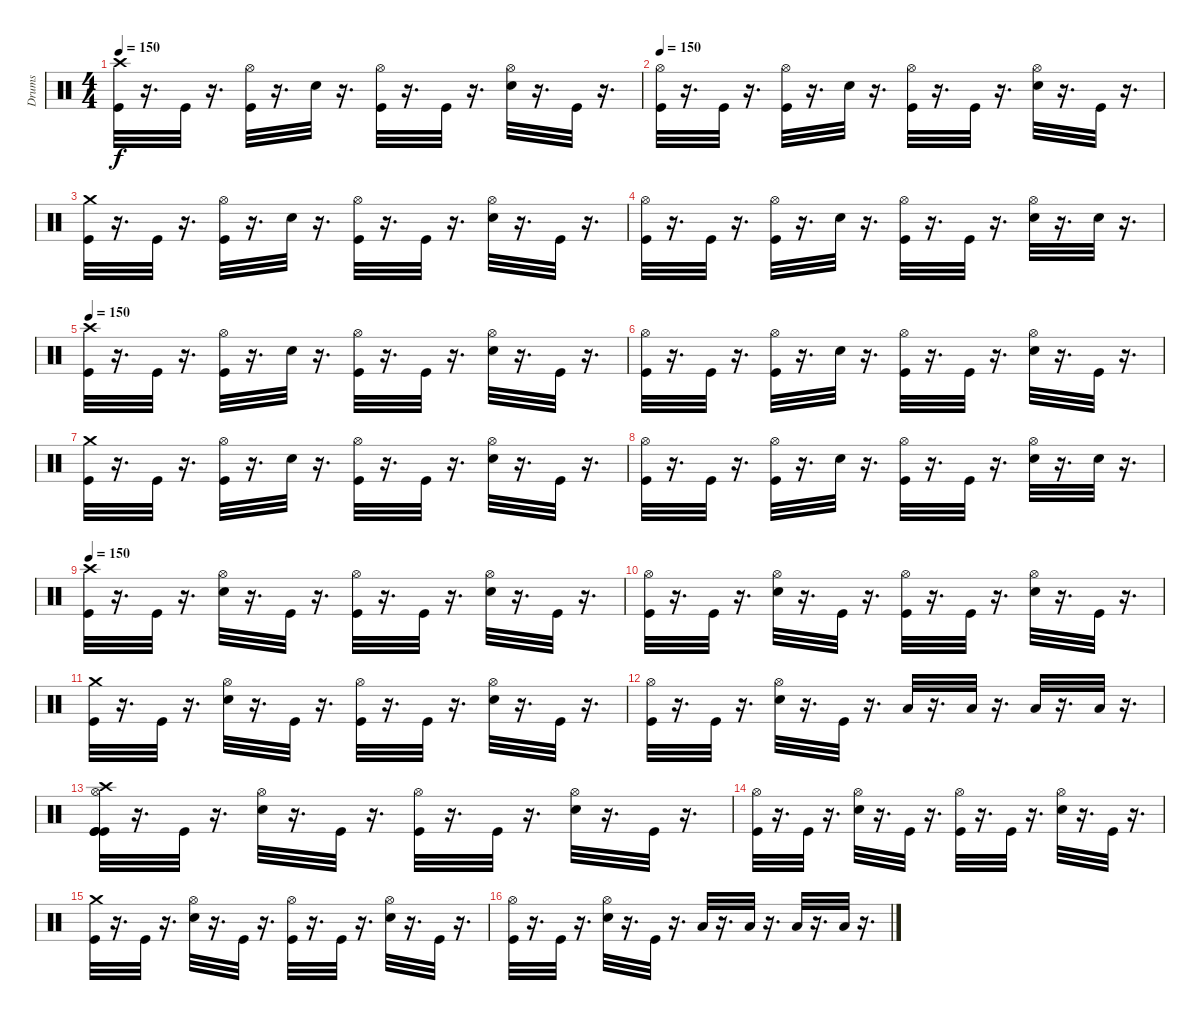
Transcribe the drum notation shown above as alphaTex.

\track ("Drums" "Drums") {instrument percussion}
\staff {score}
\articulation defaults
\ts (4 4)
\tempo 150
\clef neutral
\ks c
("Crash high (hit)" "Kick (hit)").32{dy f} r.16{d} "Kick (hit)".32 r.16{d} ("Hi-Hat (open)" "Kick (hit)").32 r.16{d} "Electric Snare (hit)".32 r.16{d} ("Hi-Hat (open)" "Kick (hit)").32 r.16{d} "Kick (hit)".32 r.16{d} ("Hi-Hat (open)" "Electric Snare (hit)").32 r.16{d} "Kick (hit)".32 r.16{d} |
\tempo 150
("Hi-Hat (open)" "Kick (hit)").32 r.16{d} "Kick (hit)".32 r.16{d} ("Hi-Hat (open)" "Kick (hit)").32 r.16{d} "Electric Snare (hit)".32 r.16{d} ("Hi-Hat (open)" "Kick (hit)").32 r.16{d} "Kick (hit)".32 r.16{d} ("Hi-Hat (open)" "Electric Snare (hit)").32 r.16{d} "Kick (hit)".32 r.16{d} |
("Crash medium (hit)" "Kick (hit)").32 r.16{d} "Kick (hit)".32 r.16{d} ("Hi-Hat (open)" "Kick (hit)").32 r.16{d} "Electric Snare (hit)".32 r.16{d} ("Hi-Hat (open)" "Kick (hit)").32 r.16{d} "Kick (hit)".32 r.16{d} ("Hi-Hat (open)" "Electric Snare (hit)").32 r.16{d} "Kick (hit)".32 r.16{d} |
("Hi-Hat (open)" "Kick (hit)").32 r.16{d} "Kick (hit)".32 r.16{d} ("Hi-Hat (open)" "Kick (hit)").32 r.16{d} "Electric Snare (hit)".32 r.16{d} ("Hi-Hat (open)" "Kick (hit)").32 r.16{d} "Kick (hit)".32 r.16{d} ("Hi-Hat (open)" "Electric Snare (hit)").32 r.16{d} "Electric Snare (hit)".32 r.16{d} |
\tempo 150
("Crash high (hit)" "Kick (hit)").32 r.16{d} "Kick (hit)".32 r.16{d} ("Hi-Hat (open)" "Kick (hit)").32 r.16{d} "Electric Snare (hit)".32 r.16{d} ("Hi-Hat (open)" "Kick (hit)").32 r.16{d} "Kick (hit)".32 r.16{d} ("Hi-Hat (open)" "Electric Snare (hit)").32 r.16{d} "Kick (hit)".32 r.16{d} |
("Hi-Hat (open)" "Kick (hit)").32 r.16{d} "Kick (hit)".32 r.16{d} ("Hi-Hat (open)" "Kick (hit)").32 r.16{d} "Electric Snare (hit)".32 r.16{d} ("Hi-Hat (open)" "Kick (hit)").32 r.16{d} "Kick (hit)".32 r.16{d} ("Hi-Hat (open)" "Electric Snare (hit)").32 r.16{d} "Kick (hit)".32 r.16{d} |
("Crash medium (hit)" "Kick (hit)").32 r.16{d} "Kick (hit)".32 r.16{d} ("Hi-Hat (open)" "Kick (hit)").32 r.16{d} "Electric Snare (hit)".32 r.16{d} ("Hi-Hat (open)" "Kick (hit)").32 r.16{d} "Kick (hit)".32 r.16{d} ("Hi-Hat (open)" "Electric Snare (hit)").32 r.16{d} "Kick (hit)".32 r.16{d} |
("Hi-Hat (open)" "Kick (hit)").32 r.16{d} "Kick (hit)".32 r.16{d} ("Hi-Hat (open)" "Kick (hit)").32 r.16{d} "Electric Snare (hit)".32 r.16{d} ("Hi-Hat (open)" "Kick (hit)").32 r.16{d} "Kick (hit)".32 r.16{d} ("Hi-Hat (open)" "Electric Snare (hit)").32 r.16{d} "Electric Snare (hit)".32 r.16{d} |
\tempo 150
("Crash high (hit)" "Kick (hit)").32 r.16{d} "Kick (hit)".32 r.16{d} ("Hi-Hat (open)" "Electric Snare (hit)").32 r.16{d} "Kick (hit)".32 r.16{d} ("Hi-Hat (open)" "Kick (hit)").32 r.16{d} "Kick (hit)".32 r.16{d} ("Hi-Hat (open)" "Electric Snare (hit)").32 r.16{d} "Kick (hit)".32 r.16{d} |
("Hi-Hat (open)" "Kick (hit)").32 r.16{d} "Kick (hit)".32 r.16{d} ("Hi-Hat (open)" "Electric Snare (hit)").32 r.16{d} "Kick (hit)".32 r.16{d} ("Hi-Hat (open)" "Kick (hit)").32 r.16{d} "Kick (hit)".32 r.16{d} ("Hi-Hat (open)" "Electric Snare (hit)").32 r.16{d} "Kick (hit)".32 r.16{d} |
("Crash medium (hit)" "Kick (hit)").32 r.16{d} "Kick (hit)".32 r.16{d} ("Hi-Hat (open)" "Electric Snare (hit)").32 r.16{d} "Kick (hit)".32 r.16{d} ("Hi-Hat (open)" "Kick (hit)").32 r.16{d} "Kick (hit)".32 r.16{d} ("Hi-Hat (open)" "Electric Snare (hit)").32 r.16{d} "Kick (hit)".32 r.16{d} |
("Hi-Hat (open)" "Kick (hit)").32 r.16{d} "Kick (hit)".32 r.16{d} ("Hi-Hat (open)" "Electric Snare (hit)").32 r.16{d} "Kick (hit)".32 r.16{d} "Low Tom (hit)".32 r.16{d} "Low Tom (hit)".32 r.16{d} "Low Floor Tom (hit)".32 r.16{d} "Low Floor Tom (hit)".32 r.16{d} |
("Hi-Hat (open)" "Kick (hit)" "Kick (hit)" "Crash high (hit)" "Kick (hit)").32 r.16{d} "Kick (hit)".32 r.16{d} ("Hi-Hat (open)" "Electric Snare (hit)").32 r.16{d} "Kick (hit)".32 r.16{d} ("Hi-Hat (open)" "Kick (hit)").32 r.16{d} "Kick (hit)".32 r.16{d} ("Hi-Hat (open)" "Electric Snare (hit)").32 r.16{d} "Kick (hit)".32 r.16{d} |
("Hi-Hat (open)" "Kick (hit)").32 r.16{d} "Kick (hit)".32 r.16{d} ("Hi-Hat (open)" "Electric Snare (hit)").32 r.16{d} "Kick (hit)".32 r.16{d} ("Hi-Hat (open)" "Kick (hit)").32 r.16{d} "Kick (hit)".32 r.16{d} ("Hi-Hat (open)" "Electric Snare (hit)").32 r.16{d} "Kick (hit)".32 r.16{d} |
("Crash medium (hit)" "Kick (hit)").32 r.16{d} "Kick (hit)".32 r.16{d} ("Hi-Hat (open)" "Electric Snare (hit)").32 r.16{d} "Kick (hit)".32 r.16{d} ("Hi-Hat (open)" "Kick (hit)").32 r.16{d} "Kick (hit)".32 r.16{d} ("Hi-Hat (open)" "Electric Snare (hit)").32 r.16{d} "Kick (hit)".32 r.16{d} |
("Hi-Hat (open)" "Kick (hit)").32 r.16{d} "Kick (hit)".32 r.16{d} ("Hi-Hat (open)" "Electric Snare (hit)").32 r.16{d} "Kick (hit)".32 r.16{d} "Low Tom (hit)".32 r.16{d} "Low Tom (hit)".32 r.16{d} "Low Floor Tom (hit)".32 r.16{d} "Low Floor Tom (hit)".32 r.16{d}
